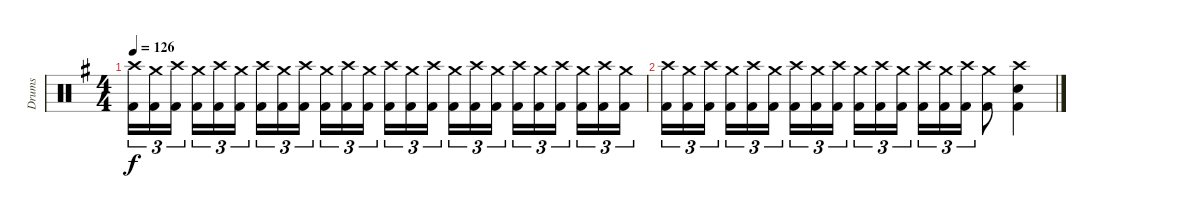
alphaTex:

\track ("Drums" "Drums") {instrument percussion}
\staff {score}
\articulation defaults
\ts (4 4)
\tempo 126
\clef neutral
\ks eminor
("Crash high (hit)" "Kick (hit) 2").16{tu (3 2) dy f} ("Crash medium (hit)" "Kick (hit) 2").16{tu (3 2)} ("Crash high (hit)" "Kick (hit) 2").16{tu (3 2) beam splitsecondary} ("Crash medium (hit)" "Kick (hit) 2").16{tu (3 2)} ("Crash high (hit)" "Kick (hit) 2").16{tu (3 2)} ("Crash medium (hit)" "Kick (hit) 2").16{tu (3 2)} ("Crash high (hit)" "Kick (hit) 2").16{tu (3 2)} ("Crash medium (hit)" "Kick (hit) 2").16{tu (3 2)} ("Crash high (hit)" "Kick (hit) 2").16{tu (3 2) beam splitsecondary} ("Crash medium (hit)" "Kick (hit) 2").16{tu (3 2)} ("Crash high (hit)" "Kick (hit) 2").16{tu (3 2)} ("Crash medium (hit)" "Kick (hit) 2").16{tu (3 2)} ("Crash high (hit)" "Kick (hit) 2").16{tu (3 2)} ("Crash medium (hit)" "Kick (hit) 2").16{tu (3 2)} ("Crash high (hit)" "Kick (hit) 2").16{tu (3 2) beam splitsecondary} ("Crash medium (hit)" "Kick (hit) 2").16{tu (3 2)} ("Crash high (hit)" "Kick (hit) 2").16{tu (3 2)} ("Crash medium (hit)" "Kick (hit) 2").16{tu (3 2)} ("Crash high (hit)" "Kick (hit) 2").16{tu (3 2)} ("Crash medium (hit)" "Kick (hit) 2").16{tu (3 2)} ("Crash high (hit)" "Kick (hit) 2").16{tu (3 2) beam splitsecondary} ("Crash medium (hit)" "Kick (hit) 2").16{tu (3 2)} ("Crash high (hit)" "Kick (hit) 2").16{tu (3 2)} ("Crash medium (hit)" "Kick (hit) 2").16{tu (3 2)} |
("Crash high (hit)" "Kick (hit) 2").16{tu (3 2)} ("Crash medium (hit)" "Kick (hit) 2").16{tu (3 2)} ("Crash high (hit)" "Kick (hit) 2").16{tu (3 2) beam splitsecondary} ("Crash medium (hit)" "Kick (hit) 2").16{tu (3 2)} ("Crash high (hit)" "Kick (hit) 2").16{tu (3 2)} ("Crash medium (hit)" "Kick (hit) 2").16{tu (3 2)} ("Crash high (hit)" "Kick (hit) 2").16{tu (3 2)} ("Crash medium (hit)" "Kick (hit) 2").16{tu (3 2)} ("Crash high (hit)" "Kick (hit) 2").16{tu (3 2) beam splitsecondary} ("Crash medium (hit)" "Kick (hit) 2").16{tu (3 2)} ("Crash high (hit)" "Kick (hit) 2").16{tu (3 2)} ("Crash medium (hit)" "Kick (hit) 2").16{tu (3 2)} ("Crash high (hit)" "Kick (hit) 2").16{tu (3 2)} ("Crash medium (hit)" "Kick (hit) 2").16{tu (3 2)} ("Crash high (hit)" "Kick (hit) 2").16{tu (3 2)} ("Crash medium (hit)" "Kick (hit) 2").8 ("Crash high (hit)" "Snare (hit) 2" "Kick (hit) 2").4
